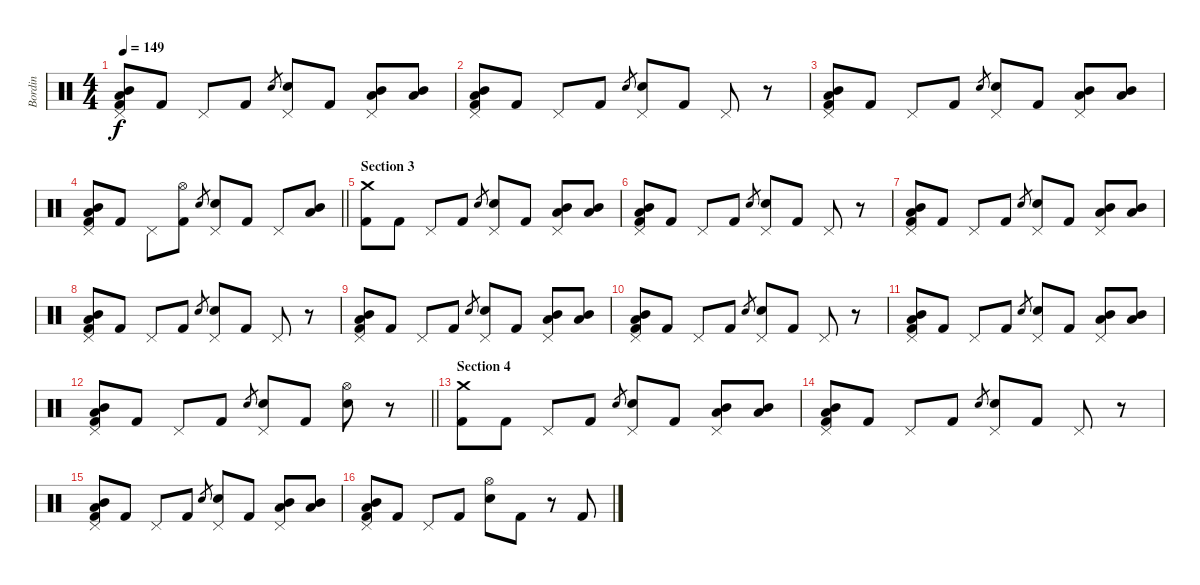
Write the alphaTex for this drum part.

\track ("Bordin" "Bordin") {instrument percussion}
\staff {score}
\articulation defaults
\ts (4 4)
\tempo 149
\clef neutral
\ks c
("Mid Tom (hit)" "Low Tom (hit)" "Pedal Hi-Hat (hit)" "Kick (hit) 2").8{dy f} "Kick (hit) 2".8 "Pedal Hi-Hat (hit)".8 "Kick (hit) 2".8 "Electric Snare (hit)".8{gr} ("Pedal Hi-Hat (hit)" "Electric Snare (hit)").8 "Kick (hit) 2".8 ("Low Tom (hit)" "Mid Tom (hit)" "Pedal Hi-Hat (hit)").8 ("Low Tom (hit)" "Mid Tom (hit)").8 |
("Mid Tom (hit)" "Low Tom (hit)" "Pedal Hi-Hat (hit)" "Kick (hit) 2").8 "Kick (hit) 2".8 "Pedal Hi-Hat (hit)".8 "Kick (hit) 2".8 "Electric Snare (hit)".8{gr} ("Pedal Hi-Hat (hit)" "Electric Snare (hit)").8 "Kick (hit) 2".8 "Pedal Hi-Hat (hit)".8 r.8 |
("Mid Tom (hit)" "Low Tom (hit)" "Pedal Hi-Hat (hit)" "Kick (hit) 2").8 "Kick (hit) 2".8 "Pedal Hi-Hat (hit)".8 "Kick (hit) 2".8 "Electric Snare (hit)".8{gr} ("Pedal Hi-Hat (hit)" "Electric Snare (hit)").8 "Kick (hit) 2".8 ("Low Tom (hit)" "Mid Tom (hit)" "Pedal Hi-Hat (hit)").8 ("Low Tom (hit)" "Mid Tom (hit)").8 |
\barLineRight lightlight
("Mid Tom (hit)" "Low Tom (hit)" "Pedal Hi-Hat (hit)" "Kick (hit) 2").8 "Kick (hit) 2".8 "Pedal Hi-Hat (hit)".8 ("Hi-Hat (open)" "Kick (hit) 2").8 "Electric Snare (hit)".8{gr} ("Pedal Hi-Hat (hit)" "Electric Snare (hit)").8 "Kick (hit) 2".8 "Pedal Hi-Hat (hit)".8 ("Low Tom (hit)" "Mid Tom (hit)").8 |
\section ("" "Section 3")
("Crash medium (hit)" "Kick (hit) 2").8 "Kick (hit) 2".8 "Pedal Hi-Hat (hit)".8 "Kick (hit) 2".8 "Electric Snare (hit)".8{gr} ("Pedal Hi-Hat (hit)" "Electric Snare (hit)").8 "Kick (hit) 2".8 ("Low Tom (hit)" "Mid Tom (hit)" "Pedal Hi-Hat (hit)").8 ("Low Tom (hit)" "Mid Tom (hit)").8 |
("Mid Tom (hit)" "Low Tom (hit)" "Pedal Hi-Hat (hit)" "Kick (hit) 2").8 "Kick (hit) 2".8 "Pedal Hi-Hat (hit)".8 "Kick (hit) 2".8 "Electric Snare (hit)".8{gr} ("Pedal Hi-Hat (hit)" "Electric Snare (hit)").8 "Kick (hit) 2".8 "Pedal Hi-Hat (hit)".8 r.8 |
("Mid Tom (hit)" "Low Tom (hit)" "Pedal Hi-Hat (hit)" "Kick (hit) 2").8 "Kick (hit) 2".8 "Pedal Hi-Hat (hit)".8 "Kick (hit) 2".8 "Electric Snare (hit)".8{gr} ("Pedal Hi-Hat (hit)" "Electric Snare (hit)").8 "Kick (hit) 2".8 ("Low Tom (hit)" "Mid Tom (hit)" "Pedal Hi-Hat (hit)").8 ("Low Tom (hit)" "Mid Tom (hit)").8 |
("Mid Tom (hit)" "Low Tom (hit)" "Pedal Hi-Hat (hit)" "Kick (hit) 2").8 "Kick (hit) 2".8 "Pedal Hi-Hat (hit)".8 "Kick (hit) 2".8 "Electric Snare (hit)".8{gr} ("Pedal Hi-Hat (hit)" "Electric Snare (hit)").8 "Kick (hit) 2".8 "Pedal Hi-Hat (hit)".8 r.8 |
("Mid Tom (hit)" "Low Tom (hit)" "Pedal Hi-Hat (hit)" "Kick (hit) 2").8 "Kick (hit) 2".8 "Pedal Hi-Hat (hit)".8 "Kick (hit) 2".8 "Electric Snare (hit)".8{gr} ("Pedal Hi-Hat (hit)" "Electric Snare (hit)").8 "Kick (hit) 2".8 ("Low Tom (hit)" "Mid Tom (hit)" "Pedal Hi-Hat (hit)").8 ("Low Tom (hit)" "Mid Tom (hit)").8 |
("Mid Tom (hit)" "Low Tom (hit)" "Pedal Hi-Hat (hit)" "Kick (hit) 2").8 "Kick (hit) 2".8 "Pedal Hi-Hat (hit)".8 "Kick (hit) 2".8 "Electric Snare (hit)".8{gr} ("Pedal Hi-Hat (hit)" "Electric Snare (hit)").8 "Kick (hit) 2".8 "Pedal Hi-Hat (hit)".8 r.8 |
("Mid Tom (hit)" "Low Tom (hit)" "Pedal Hi-Hat (hit)" "Kick (hit) 2").8 "Kick (hit) 2".8 "Pedal Hi-Hat (hit)".8 "Kick (hit) 2".8 "Electric Snare (hit)".8{gr} ("Pedal Hi-Hat (hit)" "Electric Snare (hit)").8 "Kick (hit) 2".8 ("Low Tom (hit)" "Mid Tom (hit)" "Pedal Hi-Hat (hit)").8 ("Low Tom (hit)" "Mid Tom (hit)").8 |
\barLineRight lightlight
("Mid Tom (hit)" "Low Tom (hit)" "Pedal Hi-Hat (hit)" "Kick (hit) 2").8 "Kick (hit) 2".8 "Pedal Hi-Hat (hit)".8 "Kick (hit) 2".8 "Electric Snare (hit)".8{gr} ("Pedal Hi-Hat (hit)" "Electric Snare (hit)").8 "Kick (hit) 2".8 ("Hi-Hat (open)" "Electric Snare (hit)").8 r.8 |
\section ("" "Section 4")
("Crash medium (hit)" "Kick (hit) 2").8 "Kick (hit) 2".8 "Pedal Hi-Hat (hit)".8 "Kick (hit) 2".8 "Electric Snare (hit)".8{gr} ("Pedal Hi-Hat (hit)" "Electric Snare (hit)").8 "Kick (hit) 2".8 ("Low Tom (hit)" "Mid Tom (hit)" "Pedal Hi-Hat (hit)").8 ("Low Tom (hit)" "Mid Tom (hit)").8 |
("Mid Tom (hit)" "Low Tom (hit)" "Pedal Hi-Hat (hit)" "Kick (hit) 2").8 "Kick (hit) 2".8 "Pedal Hi-Hat (hit)".8 "Kick (hit) 2".8 "Electric Snare (hit)".8{gr} ("Pedal Hi-Hat (hit)" "Electric Snare (hit)").8 "Kick (hit) 2".8 "Pedal Hi-Hat (hit)".8 r.8 |
("Mid Tom (hit)" "Low Tom (hit)" "Pedal Hi-Hat (hit)" "Kick (hit) 2").8 "Kick (hit) 2".8 "Pedal Hi-Hat (hit)".8 "Kick (hit) 2".8 "Electric Snare (hit)".8{gr} ("Pedal Hi-Hat (hit)" "Electric Snare (hit)").8 "Kick (hit) 2".8 ("Low Tom (hit)" "Mid Tom (hit)" "Pedal Hi-Hat (hit)").8 ("Low Tom (hit)" "Mid Tom (hit)").8 |
("Mid Tom (hit)" "Low Tom (hit)" "Pedal Hi-Hat (hit)" "Kick (hit) 2").8 "Kick (hit) 2".8 "Pedal Hi-Hat (hit)".8 "Kick (hit) 2".8 ("Hi-Hat (open)" "Electric Snare (hit)").8 "Kick (hit) 2".8 r.8 "Kick (hit) 2".8
